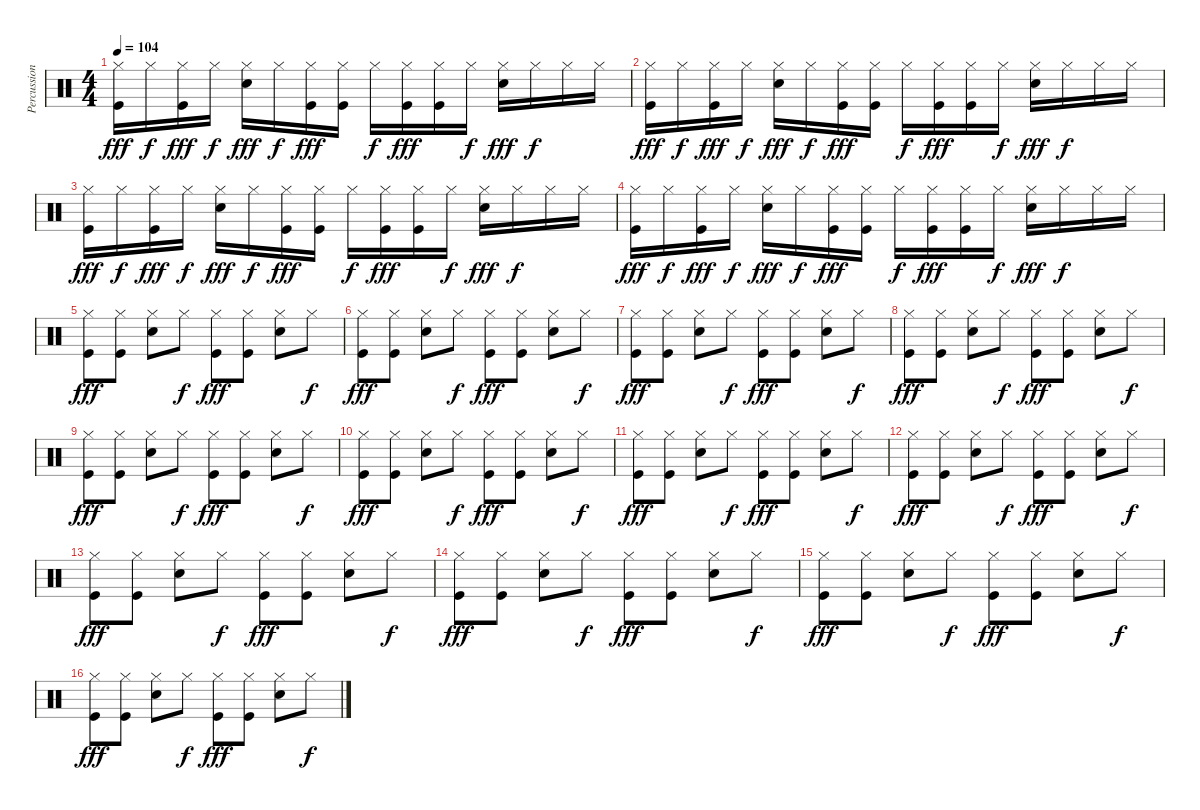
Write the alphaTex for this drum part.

\track ("Percussion" "Percussion") {instrument percussion}
\staff {score}
\articulation defaults
\ts (4 4)
\tempo 104
\clef neutral
\ks c
("Kick (hit)" "Hi-Hat (closed)").16{dy fff} "Hi-Hat (closed)".16{dy f} ("Kick (hit)" "Hi-Hat (closed)").16{dy fff} "Hi-Hat (closed)".16{dy f} ("Snare (hit) 2" "Hi-Hat (closed)").16{dy fff} "Hi-Hat (closed)".16{dy f} ("Kick (hit)" "Hi-Hat (closed)").16{dy fff} ("Kick (hit)" "Hi-Hat (closed)").16 "Hi-Hat (closed)".16{dy f} ("Kick (hit)" "Hi-Hat (closed)").16{dy fff} ("Kick (hit)" "Hi-Hat (closed)").16 "Hi-Hat (closed)".16{dy f} ("Snare (hit) 2" "Hi-Hat (closed)").16{dy fff} "Hi-Hat (closed)".16{dy f} "Hi-Hat (closed)".16 "Hi-Hat (closed)".16 |
("Kick (hit)" "Hi-Hat (closed)").16{dy fff} "Hi-Hat (closed)".16{dy f} ("Kick (hit)" "Hi-Hat (closed)").16{dy fff} "Hi-Hat (closed)".16{dy f} ("Snare (hit) 2" "Hi-Hat (closed)").16{dy fff} "Hi-Hat (closed)".16{dy f} ("Kick (hit)" "Hi-Hat (closed)").16{dy fff} ("Kick (hit)" "Hi-Hat (closed)").16 "Hi-Hat (closed)".16{dy f} ("Kick (hit)" "Hi-Hat (closed)").16{dy fff} ("Kick (hit)" "Hi-Hat (closed)").16 "Hi-Hat (closed)".16{dy f} ("Snare (hit) 2" "Hi-Hat (closed)").16{dy fff} "Hi-Hat (closed)".16{dy f} "Hi-Hat (closed)".16 "Hi-Hat (closed)".16 |
("Kick (hit)" "Hi-Hat (closed)").16{dy fff} "Hi-Hat (closed)".16{dy f} ("Kick (hit)" "Hi-Hat (closed)").16{dy fff} "Hi-Hat (closed)".16{dy f} ("Snare (hit) 2" "Hi-Hat (closed)").16{dy fff} "Hi-Hat (closed)".16{dy f} ("Kick (hit)" "Hi-Hat (closed)").16{dy fff} ("Kick (hit)" "Hi-Hat (closed)").16 "Hi-Hat (closed)".16{dy f} ("Kick (hit)" "Hi-Hat (closed)").16{dy fff} ("Kick (hit)" "Hi-Hat (closed)").16 "Hi-Hat (closed)".16{dy f} ("Snare (hit) 2" "Hi-Hat (closed)").16{dy fff} "Hi-Hat (closed)".16{dy f} "Hi-Hat (closed)".16 "Hi-Hat (closed)".16 |
("Kick (hit)" "Hi-Hat (closed)").16{dy fff} "Hi-Hat (closed)".16{dy f} ("Kick (hit)" "Hi-Hat (closed)").16{dy fff} "Hi-Hat (closed)".16{dy f} ("Snare (hit) 2" "Hi-Hat (closed)").16{dy fff} "Hi-Hat (closed)".16{dy f} ("Kick (hit)" "Hi-Hat (closed)").16{dy fff} ("Kick (hit)" "Hi-Hat (closed)").16 "Hi-Hat (closed)".16{dy f} ("Kick (hit)" "Hi-Hat (closed)").16{dy fff} ("Kick (hit)" "Hi-Hat (closed)").16 "Hi-Hat (closed)".16{dy f} ("Snare (hit) 2" "Hi-Hat (closed)").16{dy fff} "Hi-Hat (closed)".16{dy f} "Hi-Hat (closed)".16 "Hi-Hat (closed)".16 |
("Kick (hit)" "Hi-Hat (closed)").8{dy fff} ("Kick (hit)" "Hi-Hat (closed)").8 ("Snare (hit) 2" "Hi-Hat (closed)").8 "Hi-Hat (closed)".8{dy f} ("Kick (hit)" "Hi-Hat (closed)").8{dy fff} ("Kick (hit)" "Hi-Hat (closed)").8 ("Snare (hit) 2" "Hi-Hat (closed)").8 "Hi-Hat (closed)".8{dy f} |
("Kick (hit)" "Hi-Hat (closed)").8{dy fff} ("Kick (hit)" "Hi-Hat (closed)").8 ("Snare (hit) 2" "Hi-Hat (closed)").8 "Hi-Hat (closed)".8{dy f} ("Kick (hit)" "Hi-Hat (closed)").8{dy fff} ("Kick (hit)" "Hi-Hat (closed)").8 ("Snare (hit) 2" "Hi-Hat (closed)").8 "Hi-Hat (closed)".8{dy f} |
("Kick (hit)" "Hi-Hat (closed)").8{dy fff} ("Kick (hit)" "Hi-Hat (closed)").8 ("Snare (hit) 2" "Hi-Hat (closed)").8 "Hi-Hat (closed)".8{dy f} ("Kick (hit)" "Hi-Hat (closed)").8{dy fff} ("Kick (hit)" "Hi-Hat (closed)").8 ("Snare (hit) 2" "Hi-Hat (closed)").8 "Hi-Hat (closed)".8{dy f} |
("Kick (hit)" "Hi-Hat (closed)").8{dy fff} ("Kick (hit)" "Hi-Hat (closed)").8 ("Snare (hit) 2" "Hi-Hat (closed)").8 "Hi-Hat (closed)".8{dy f} ("Kick (hit)" "Hi-Hat (closed)").8{dy fff} ("Kick (hit)" "Hi-Hat (closed)").8 ("Snare (hit) 2" "Hi-Hat (closed)").8 "Hi-Hat (closed)".8{dy f} |
("Kick (hit)" "Hi-Hat (closed)").8{dy fff} ("Kick (hit)" "Hi-Hat (closed)").8 ("Snare (hit) 2" "Hi-Hat (closed)").8 "Hi-Hat (closed)".8{dy f} ("Kick (hit)" "Hi-Hat (closed)").8{dy fff} ("Kick (hit)" "Hi-Hat (closed)").8 ("Snare (hit) 2" "Hi-Hat (closed)").8 "Hi-Hat (closed)".8{dy f} |
("Kick (hit)" "Hi-Hat (closed)").8{dy fff} ("Kick (hit)" "Hi-Hat (closed)").8 ("Snare (hit) 2" "Hi-Hat (closed)").8 "Hi-Hat (closed)".8{dy f} ("Kick (hit)" "Hi-Hat (closed)").8{dy fff} ("Kick (hit)" "Hi-Hat (closed)").8 ("Snare (hit) 2" "Hi-Hat (closed)").8 "Hi-Hat (closed)".8{dy f} |
("Kick (hit)" "Hi-Hat (closed)").8{dy fff} ("Kick (hit)" "Hi-Hat (closed)").8 ("Snare (hit) 2" "Hi-Hat (closed)").8 "Hi-Hat (closed)".8{dy f} ("Kick (hit)" "Hi-Hat (closed)").8{dy fff} ("Kick (hit)" "Hi-Hat (closed)").8 ("Snare (hit) 2" "Hi-Hat (closed)").8 "Hi-Hat (closed)".8{dy f} |
("Kick (hit)" "Hi-Hat (closed)").8{dy fff} ("Kick (hit)" "Hi-Hat (closed)").8 ("Snare (hit) 2" "Hi-Hat (closed)").8 "Hi-Hat (closed)".8{dy f} ("Kick (hit)" "Hi-Hat (closed)").8{dy fff} ("Kick (hit)" "Hi-Hat (closed)").8 ("Snare (hit) 2" "Hi-Hat (closed)").8 "Hi-Hat (closed)".8{dy f} |
("Kick (hit)" "Hi-Hat (closed)").8{dy fff} ("Kick (hit)" "Hi-Hat (closed)").8 ("Snare (hit) 2" "Hi-Hat (closed)").8 "Hi-Hat (closed)".8{dy f} ("Kick (hit)" "Hi-Hat (closed)").8{dy fff} ("Kick (hit)" "Hi-Hat (closed)").8 ("Snare (hit) 2" "Hi-Hat (closed)").8 "Hi-Hat (closed)".8{dy f} |
("Kick (hit)" "Hi-Hat (closed)").8{dy fff} ("Kick (hit)" "Hi-Hat (closed)").8 ("Snare (hit) 2" "Hi-Hat (closed)").8 "Hi-Hat (closed)".8{dy f} ("Kick (hit)" "Hi-Hat (closed)").8{dy fff} ("Kick (hit)" "Hi-Hat (closed)").8 ("Snare (hit) 2" "Hi-Hat (closed)").8 "Hi-Hat (closed)".8{dy f} |
("Kick (hit)" "Hi-Hat (closed)").8{dy fff} ("Kick (hit)" "Hi-Hat (closed)").8 ("Snare (hit) 2" "Hi-Hat (closed)").8 "Hi-Hat (closed)".8{dy f} ("Kick (hit)" "Hi-Hat (closed)").8{dy fff} ("Kick (hit)" "Hi-Hat (closed)").8 ("Snare (hit) 2" "Hi-Hat (closed)").8 "Hi-Hat (closed)".8{dy f} |
("Kick (hit)" "Hi-Hat (closed)").8{dy fff} ("Kick (hit)" "Hi-Hat (closed)").8 ("Snare (hit) 2" "Hi-Hat (closed)").8 "Hi-Hat (closed)".8{dy f} ("Kick (hit)" "Hi-Hat (closed)").8{dy fff} ("Kick (hit)" "Hi-Hat (closed)").8 ("Snare (hit) 2" "Hi-Hat (closed)").8 "Hi-Hat (closed)".8{dy f}
